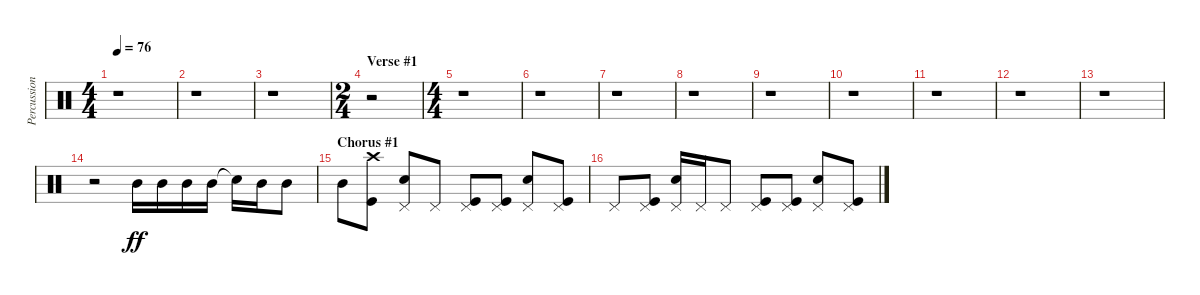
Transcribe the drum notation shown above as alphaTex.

\track ("Percussion" "Percussion") {instrument percussion}
\staff {score}
\articulation defaults
\ts (4 4)
\tempo 76
\clef neutral
\ks c
r.1{dy ff} |
r.1 |
r.1 |
\ts (2 4)
\section ("" "Verse #1")
r.2 |
\ts (4 4)
r.1 |
r.1 |
r.1 |
r.1 |
r.1 |
r.1 |
r.1 |
r.1 |
r.1 |
r.2 "Mid Tom (hit)".16 "Mid Tom (hit)".16 "Mid Tom (hit)".16 "Mid Tom (hit)".16 "Snare (hit)"{t}.16 "Mid Tom (hit)".16 "Mid Tom (hit)".8 |
\section ("" "Chorus #1")
"Mid Tom (hit)".8 ("Crash high (hit)" "Kick (hit)").8 ("Pedal Hi-Hat (hit)" "Snare (hit) 2").8 "Pedal Hi-Hat (hit)".8 ("Pedal Hi-Hat (hit)" "Kick (hit)").8 ("Pedal Hi-Hat (hit)" "Kick (hit)").8 ("Pedal Hi-Hat (hit)" "Snare (hit) 2").8 ("Pedal Hi-Hat (hit)" "Kick (hit)").8 |
"Pedal Hi-Hat (hit)".8 ("Pedal Hi-Hat (hit)" "Kick (hit)").8 ("Pedal Hi-Hat (hit)" "Snare (hit) 2").16 "Pedal Hi-Hat (hit)".16 "Pedal Hi-Hat (hit)".8 ("Pedal Hi-Hat (hit)" "Kick (hit)").8 ("Pedal Hi-Hat (hit)" "Kick (hit)").8 ("Pedal Hi-Hat (hit)" "Snare (hit) 2").8 ("Pedal Hi-Hat (hit)" "Kick (hit)").8
